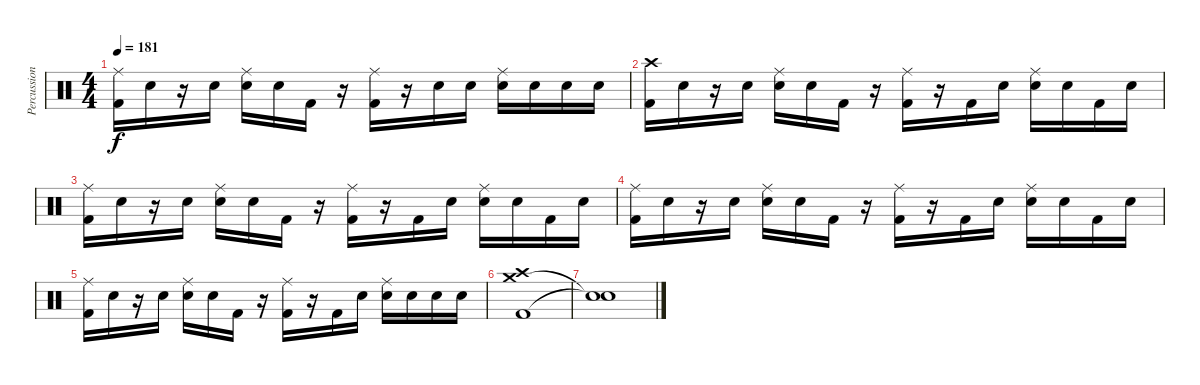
\track ("Percussion" "Percussion") {instrument percussion}
\staff {score}
\articulation defaults
\ts (4 4)
\tempo 181
\clef neutral
\ks c
("Kick (hit) 2" "Ride (middle)").16{dy f} "Snare (hit)"{x}.16 r.16 "Snare (hit)"{x}.16 ("Electric Snare (hit)" "Ride (middle)").16 "Snare (hit)"{x}.16 "Kick (hit) 2".16 r.16 ("Kick (hit) 2" "Ride (middle)").16 r.16 "Electric Snare (hit)".16 "Snare (hit)"{x}.16 ("Electric Snare (hit)" "Ride (middle)").16 "Electric Snare (hit)".16 "Electric Snare (hit)".16 "Electric Snare (hit)".16 |
("Kick (hit) 2" "Crash high (hit)").16 "Snare (hit)"{x}.16 r.16 "Snare (hit)"{x}.16 ("Electric Snare (hit)" "Ride (middle)").16 "Snare (hit)"{x}.16 "Kick (hit) 2".16 r.16 ("Kick (hit) 2" "Ride (middle)").16 r.16 "Kick (hit) 2".16 "Snare (hit)"{x}.16 ("Electric Snare (hit)" "Ride (middle)").16 "Snare (hit)"{x}.16 "Kick (hit) 2".16 "Snare (hit)"{x}.16 |
("Kick (hit) 2" "Ride (middle)").16 "Snare (hit)"{x}.16 r.16 "Snare (hit)"{x}.16 ("Electric Snare (hit)" "Ride (middle)").16 "Snare (hit)"{x}.16 "Kick (hit) 2".16 r.16 ("Kick (hit) 2" "Ride (middle)").16 r.16 "Kick (hit) 2".16 "Snare (hit)"{x}.16 ("Electric Snare (hit)" "Ride (middle)").16 "Snare (hit)"{x}.16 "Kick (hit) 2".16 "Snare (hit)"{x}.16 |
("Kick (hit) 2" "Ride (middle)").16 "Snare (hit)"{x}.16 r.16 "Snare (hit)"{x}.16 ("Electric Snare (hit)" "Ride (middle)").16 "Snare (hit)"{x}.16 "Kick (hit) 2".16 r.16 ("Kick (hit) 2" "Ride (middle)").16 r.16 "Kick (hit) 2".16 "Snare (hit)"{x}.16 ("Electric Snare (hit)" "Ride (middle)").16 "Snare (hit)"{x}.16 "Kick (hit) 2".16 "Snare (hit)"{x}.16 |
("Kick (hit) 2" "Ride (middle)").16 "Snare (hit)"{x}.16 r.16 "Snare (hit)"{x}.16 ("Electric Snare (hit)" "Ride (middle)").16 "Snare (hit)"{x}.16 "Kick (hit) 2".16 r.16 ("Kick (hit) 2" "Ride (middle)").16 r.16 "Kick (hit) 2".16 "Snare (hit)"{x}.16 ("Electric Snare (hit)" "Ride (middle)").16 "Snare (hit)"{x}.16 "Electric Snare (hit)".16 "Snare (hit)"{x}.16 |
("Kick (hit) 2" "Crash medium (hit)" "Crash high (hit)").1 |
("Snare (hit)"{t} "Snare (hit)"{t}).1
